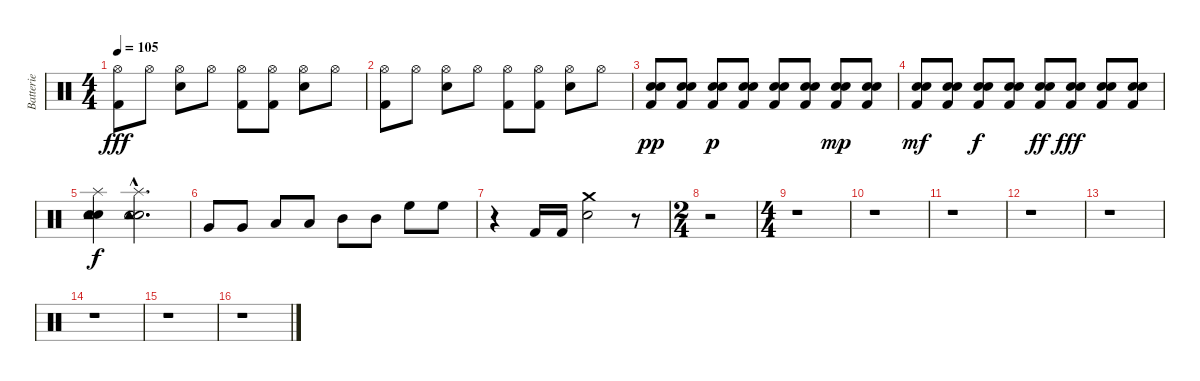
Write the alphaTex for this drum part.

\track ("Batterie" "Batterie") {instrument percussion}
\staff {score}
\articulation defaults
\ts (4 4)
\tempo 105
\clef neutral
\ks c
("Hi-Hat (open)" "Kick (hit) 2").8{dy fff} "Hi-Hat (open)".8 ("Hi-Hat (open)" "Electric Snare (hit)").8 "Hi-Hat (open)".8 ("Hi-Hat (open)" "Kick (hit) 2").8 ("Hi-Hat (open)" "Kick (hit) 2").8 ("Hi-Hat (open)" "Electric Snare (hit)").8 "Hi-Hat (open)".8 |
("Hi-Hat (open)" "Kick (hit) 2").8 "Hi-Hat (open)".8 ("Hi-Hat (open)" "Electric Snare (hit)").8 "Hi-Hat (open)".8 ("Hi-Hat (open)" "Kick (hit) 2").8 ("Hi-Hat (open)" "Kick (hit) 2").8 ("Hi-Hat (open)" "Electric Snare (hit)").8 "Hi-Hat (open)".8 |
("Snare (hit) 2" "Electric Snare (hit)" "Kick (hit) 2").8{dy pp} ("Snare (hit) 2" "Electric Snare (hit)" "Kick (hit) 2").8 ("Snare (hit) 2" "Electric Snare (hit)" "Kick (hit) 2").8{dy p} ("Snare (hit) 2" "Electric Snare (hit)" "Kick (hit) 2").8 ("Snare (hit) 2" "Electric Snare (hit)" "Kick (hit) 2").8 ("Snare (hit) 2" "Electric Snare (hit)" "Kick (hit) 2").8 ("Snare (hit) 2" "Electric Snare (hit)" "Kick (hit) 2").8{dy mp} ("Snare (hit) 2" "Electric Snare (hit)" "Kick (hit) 2").8 |
("Snare (hit) 2" "Electric Snare (hit)" "Kick (hit) 2").8{dy mf} ("Snare (hit) 2" "Electric Snare (hit)" "Kick (hit) 2").8 ("Snare (hit) 2" "Electric Snare (hit)" "Kick (hit) 2").8{dy f} ("Snare (hit) 2" "Electric Snare (hit)" "Kick (hit) 2").8 ("Snare (hit) 2" "Electric Snare (hit)" "Kick (hit) 2").8{dy ff} ("Snare (hit) 2" "Electric Snare (hit)" "Kick (hit) 2").8{dy fff} ("Snare (hit) 2" "Electric Snare (hit)" "Kick (hit) 2").8 ("Snare (hit) 2" "Electric Snare (hit)" "Kick (hit) 2").8 |
("Splash (hit)" "Electric Snare (hit)" "Electric Snare (hit)" "Tambourine (hit)").4{dy f} ("Splash (hit)"{hac} "Electric Snare (hit)"{hac} "Electric Snare (hit)"{hac} "Tambourine (hit)"{hac}).2{d} |
"Very Low Tom (hit)".8 "Very Low Tom (hit)".8 "Low Tom (hit)".8 "Low Tom (hit)".8 "Mid Tom (hit)".8 "Mid Tom (hit)".8 "High Floor Tom (hit)".8 "High Floor Tom (hit)".8 |
r.4 "Kick (hit) 2".16 "Kick (hit) 2".16 ("Crash medium (hit)" "Electric Snare (hit)").2 r.8 |
\ts (2 4)
r.2 |
\ts (4 4)
r.1 |
r.1 |
r.1 |
r.1 |
r.1 |
r.1 |
r.1 |
r.1
